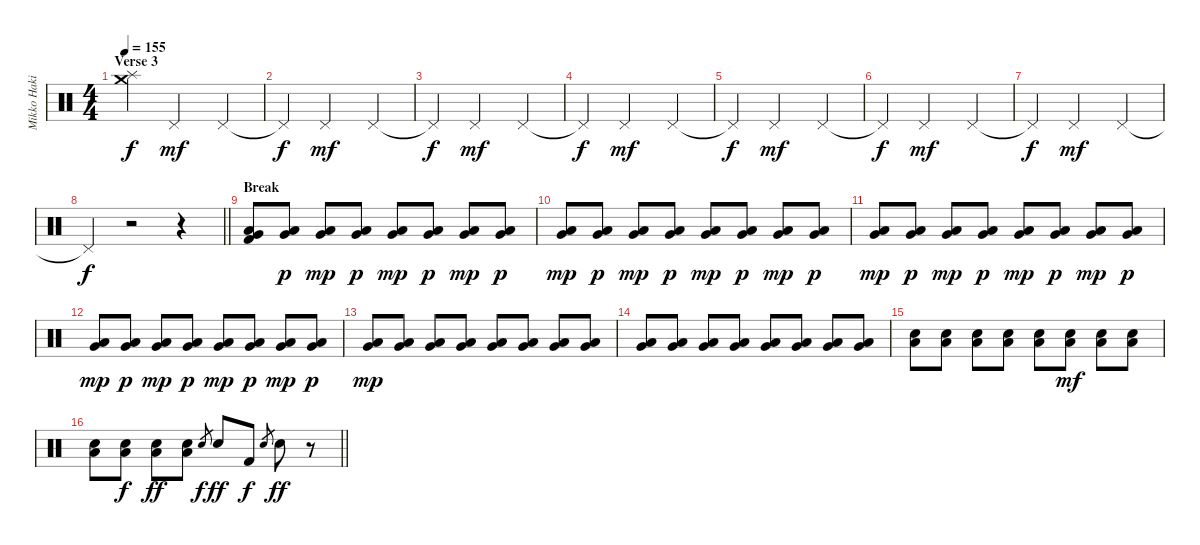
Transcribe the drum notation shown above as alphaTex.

\track ("Mikko Hakila - Drums" "Mikko Haki") {instrument percussion}
\staff {score}
\articulation defaults
\ts (4 4)
\section ("" "Verse 3")
\tempo 155
\clef neutral
\ks c
("Crash medium (hit)" "Splash (hit)").4{dy f} "Pedal Hi-Hat (hit)".2{dy mf} "Pedal Hi-Hat (hit)".4 |
"Pedal Hi-Hat (hit)"{t}.4{dy f} "Pedal Hi-Hat (hit)".2{dy mf} "Pedal Hi-Hat (hit)".4 |
"Pedal Hi-Hat (hit)"{t}.4{dy f} "Pedal Hi-Hat (hit)".2{dy mf} "Pedal Hi-Hat (hit)".4 |
"Pedal Hi-Hat (hit)"{t}.4{dy f} "Pedal Hi-Hat (hit)".2{dy mf} "Pedal Hi-Hat (hit)".4 |
"Pedal Hi-Hat (hit)"{t}.4{dy f} "Pedal Hi-Hat (hit)".2{dy mf} "Pedal Hi-Hat (hit)".4 |
"Pedal Hi-Hat (hit)"{t}.4{dy f} "Pedal Hi-Hat (hit)".2{dy mf} "Pedal Hi-Hat (hit)".4 |
"Pedal Hi-Hat (hit)"{t}.4{dy f} "Pedal Hi-Hat (hit)".2{dy mf} "Pedal Hi-Hat (hit)".4 |
\barLineRight lightlight "Pedal Hi-Hat (hit)"{t}.4{dy f}
r.2 r.4 |
\section ("" "Break")
("Very Low Tom (hit)" "Low Floor Tom (hit)" "Kick (hit) 2").8 ("Very Low Tom (hit)" "Low Floor Tom (hit)").8{dy p} ("Very Low Tom (hit)" "Low Floor Tom (hit)").8{dy mp} ("Very Low Tom (hit)" "Low Floor Tom (hit)").8{dy p} ("Very Low Tom (hit)" "Low Floor Tom (hit)").8{dy mp} ("Very Low Tom (hit)" "Low Floor Tom (hit)").8{dy p} ("Very Low Tom (hit)" "Low Floor Tom (hit)").8{dy mp} ("Very Low Tom (hit)" "Low Floor Tom (hit)").8{dy p} |
("Very Low Tom (hit)" "Low Floor Tom (hit)").8{dy mp} ("Very Low Tom (hit)" "Low Floor Tom (hit)").8{dy p} ("Very Low Tom (hit)" "Low Floor Tom (hit)").8{dy mp} ("Very Low Tom (hit)" "Low Floor Tom (hit)").8{dy p} ("Very Low Tom (hit)" "Low Floor Tom (hit)").8{dy mp} ("Very Low Tom (hit)" "Low Floor Tom (hit)").8{dy p} ("Very Low Tom (hit)" "Low Floor Tom (hit)").8{dy mp} ("Very Low Tom (hit)" "Low Floor Tom (hit)").8{dy p} |
("Very Low Tom (hit)" "Low Floor Tom (hit)").8{dy mp} ("Very Low Tom (hit)" "Low Floor Tom (hit)").8{dy p} ("Very Low Tom (hit)" "Low Floor Tom (hit)").8{dy mp} ("Very Low Tom (hit)" "Low Floor Tom (hit)").8{dy p} ("Very Low Tom (hit)" "Low Floor Tom (hit)").8{dy mp} ("Very Low Tom (hit)" "Low Floor Tom (hit)").8{dy p} ("Very Low Tom (hit)" "Low Floor Tom (hit)").8{dy mp} ("Very Low Tom (hit)" "Low Floor Tom (hit)").8{dy p} |
("Very Low Tom (hit)" "Low Floor Tom (hit)").8{dy mp} ("Very Low Tom (hit)" "Low Floor Tom (hit)").8{dy p} ("Very Low Tom (hit)" "Low Floor Tom (hit)").8{dy mp} ("Very Low Tom (hit)" "Low Floor Tom (hit)").8{dy p} ("Very Low Tom (hit)" "Low Floor Tom (hit)").8{dy mp} ("Very Low Tom (hit)" "Low Floor Tom (hit)").8{dy p} ("Very Low Tom (hit)" "Low Floor Tom (hit)").8{dy mp} ("Very Low Tom (hit)" "Low Floor Tom (hit)").8{dy p} |
("Very Low Tom (hit)" "Low Floor Tom (hit)").8{dy mp} ("Very Low Tom (hit)" "Low Floor Tom (hit)").8 ("Very Low Tom (hit)" "Low Floor Tom (hit)").8 ("Very Low Tom (hit)" "Low Floor Tom (hit)").8 ("Very Low Tom (hit)" "Low Floor Tom (hit)").8 ("Very Low Tom (hit)" "Low Floor Tom (hit)").8 ("Very Low Tom (hit)" "Low Floor Tom (hit)").8 ("Very Low Tom (hit)" "Low Floor Tom (hit)").8 |
("Very Low Tom (hit)" "Low Floor Tom (hit)").8 ("Very Low Tom (hit)" "Low Floor Tom (hit)").8 ("Very Low Tom (hit)" "Low Floor Tom (hit)").8 ("Very Low Tom (hit)" "Low Floor Tom (hit)").8 ("Very Low Tom (hit)" "Low Floor Tom (hit)").8 ("Very Low Tom (hit)" "Low Floor Tom (hit)").8 ("Very Low Tom (hit)" "Low Floor Tom (hit)").8 ("Very Low Tom (hit)" "Low Floor Tom (hit)").8 |
("Electric Snare (hit)" "Low Floor Tom (hit)").8 ("Electric Snare (hit)" "Low Floor Tom (hit)").8 ("Electric Snare (hit)" "Low Floor Tom (hit)").8 ("Electric Snare (hit)" "Low Floor Tom (hit)").8 ("Electric Snare (hit)" "Low Floor Tom (hit)").8 ("Electric Snare (hit)" "Low Floor Tom (hit)").8{dy mf} ("Electric Snare (hit)" "Low Floor Tom (hit)").8 ("Electric Snare (hit)" "Low Floor Tom (hit)").8 |
\barLineRight lightlight
("Electric Snare (hit)" "Low Floor Tom (hit)").8 ("Electric Snare (hit)" "Low Floor Tom (hit)").8{dy f} ("Electric Snare (hit)" "Low Floor Tom (hit)").8{dy ff} ("Electric Snare (hit)" "Low Floor Tom (hit)").8 "Electric Snare (hit)".8{gr dy f} "Electric Snare (hit)".8{dy ff} "Kick (hit) 2".8{dy f} "Electric Snare (hit)".8{gr} "Electric Snare (hit)".8{dy ff} r.8
